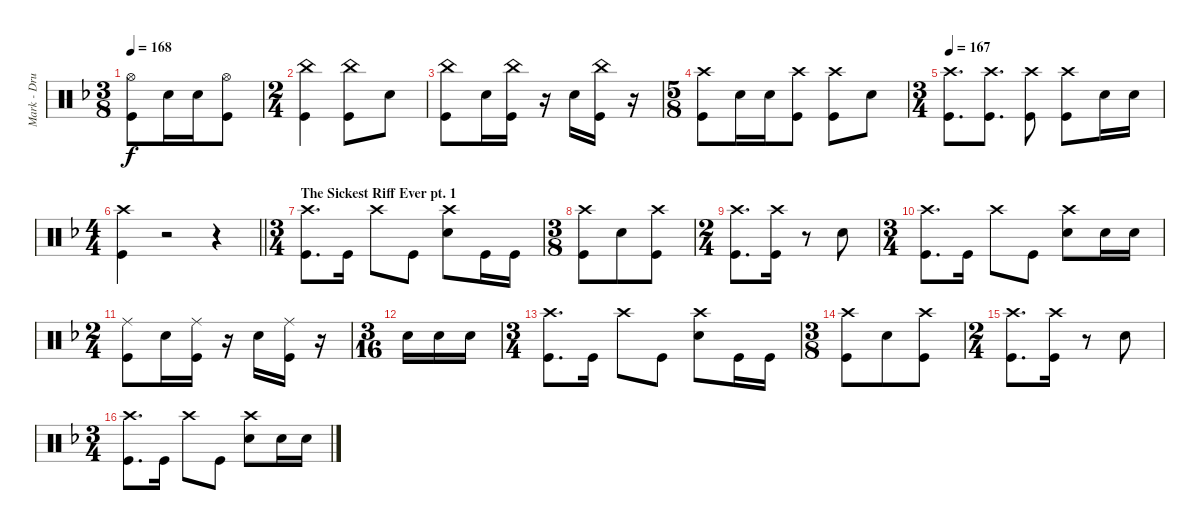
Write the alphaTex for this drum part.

\track ("Mark - Drums" "Mark - Dru") {instrument percussion}
\staff {score}
\articulation defaults
\ts (3 8)
\tempo 168
\clef neutral
\ks dminor
("Kick (hit)" "Hi-Hat (open)").8{dy f} "Snare (hit) 2".16 "Snare (hit) 2".16 ("Kick (hit)" "Hi-Hat (open)").8 |
\ts (2 4)
("China (hit)" "Kick (hit)").4 ("Kick (hit)" "China (hit)").8 "Snare (hit) 2".8 |
("Kick (hit)" "China (hit)").8 "Snare (hit) 2".16 ("Kick (hit)" "China (hit)").16 r.16 "Snare (hit) 2".16 ("Kick (hit)" "China (hit)").16 r.16 |
\ts (5 8)
("Kick (hit)" "Crash high (hit)").8 "Snare (hit) 2".16 "Snare (hit) 2".16 ("Kick (hit)" "Crash high (hit)").8 ("Kick (hit)" "Crash high (hit)").8 "Snare (hit) 2".8 |
\ts (3 4)
\tempo 167
("Kick (hit)" "Crash high (hit)").8{d} ("Kick (hit)" "Crash high (hit)").8{d} ("Kick (hit)" "Crash high (hit)").8 ("Kick (hit)" "Crash high (hit)").8 "Snare (hit) 2".16 "Snare (hit) 2".16 |
\ts (4 4)
\barLineRight lightlight
("Crash high (hit)" "Kick (hit)").4 r.2 r.4 |
\ts (3 4)
\section ("" "The Sickest Riff Ever pt. 1")
("Crash high (hit)" "Kick (hit)").8{d} "Kick (hit)".16 "Crash high (hit)".8 "Kick (hit)".8 ("Snare (hit) 2" "Crash high (hit)").8 "Kick (hit)".16 "Kick (hit)".16 |
\ts (3 8)
("Kick (hit)" "Crash high (hit)").8 "Snare (hit) 2".8 ("Crash high (hit)" "Kick (hit)").8 |
\ts (2 4)
("Kick (hit)" "Crash high (hit)").8{d} ("Kick (hit)" "Crash high (hit)").16 r.8 "Snare (hit) 2".8 |
\ts (3 4)
("Crash high (hit)" "Kick (hit)").8{d} "Kick (hit)".16 "Crash high (hit)".8 "Kick (hit)".8 ("Snare (hit) 2" "Crash high (hit)").8 "Snare (hit) 2".16 "Snare (hit) 2".16 |
\ts (2 4)
("Kick (hit)" "Ride (middle)").8 "Snare (hit) 2".16 ("Kick (hit)" "Ride (middle)").16 r.16 "Snare (hit) 2".16 ("Kick (hit)" "Ride (middle)").16 r.16 |
\ts (3 16)
"Snare (hit) 2".16 "Snare (hit) 2".16 "Snare (hit) 2".16 |
\ts (3 4)
("Crash high (hit)" "Kick (hit)").8{d} "Kick (hit)".16 "Crash high (hit)".8 "Kick (hit)".8 ("Snare (hit) 2" "Crash high (hit)").8 "Kick (hit)".16 "Kick (hit)".16 |
\ts (3 8)
("Kick (hit)" "Crash high (hit)").8 "Snare (hit) 2".8 ("Crash high (hit)" "Kick (hit)").8 |
\ts (2 4)
("Kick (hit)" "Crash high (hit)").8{d} ("Kick (hit)" "Crash high (hit)").16 r.8 "Snare (hit) 2".8 |
\ts (3 4)
("Crash high (hit)" "Kick (hit)").8{d} "Kick (hit)".16 "Crash high (hit)".8 "Kick (hit)".8 ("Snare (hit) 2" "Crash high (hit)").8 "Snare (hit) 2".16 "Snare (hit) 2".16
